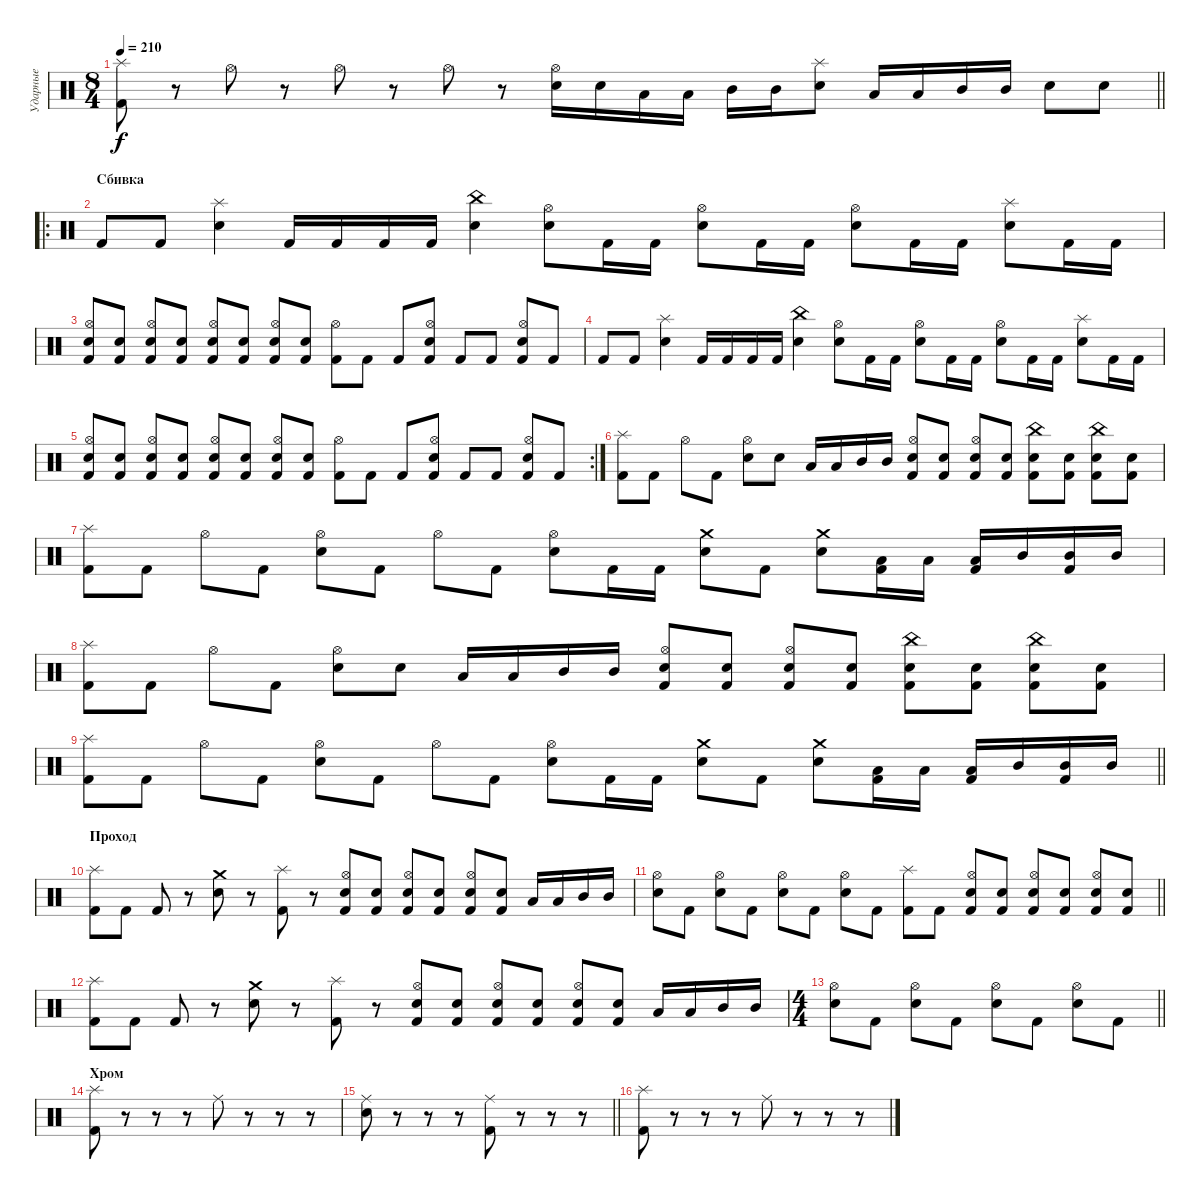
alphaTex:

\track ("Ударные" "Ударные") {mute instrument percussion}
\staff {score}
\articulation defaults
\ts (8 4)
\tempo 210
\clef neutral
\barLineRight lightlight
\ks c
("Kick (hit) 2" "Splash (hit)").8{dy f} r.8 "Hi-Hat (open)".8 r.8 "Hi-Hat (open)".8 r.8 "Hi-Hat (open)".8 r.8 ("Electric Snare (hit)" "Hi-Hat (open)").16 "Electric Snare (hit)".16 "Low Tom (hit)".16 "Low Tom (hit)".16 "Mid Tom (hit)".16 "Mid Tom (hit)".16 ("Electric Snare (hit)" "Splash (hit)").8 "Low Tom (hit)".16 "Low Tom (hit)".16 "Mid Tom (hit)".16 "Mid Tom (hit)".16 "Electric Snare (hit)".8 "Electric Snare (hit)".8 |
\ro
\section ("" "Сбивка")
"Kick (hit) 2".8 "Kick (hit) 2".8 ("Electric Snare (hit)" "Splash (hit)").4 "Kick (hit) 2".16 "Kick (hit) 2".16 "Kick (hit) 2".16 "Kick (hit) 2".16 ("Electric Snare (hit)" "China (hit)").4 ("Electric Snare (hit)" "Hi-Hat (open)").8 "Kick (hit) 2".16 "Kick (hit) 2".16 ("Electric Snare (hit)" "Hi-Hat (open)").8 "Kick (hit) 2".16 "Kick (hit) 2".16 ("Electric Snare (hit)" "Hi-Hat (open)").8 "Kick (hit) 2".16 "Kick (hit) 2".16 ("Electric Snare (hit)" "Splash (hit)").8 "Kick (hit) 2".16 "Kick (hit) 2".16 |
("Kick (hit) 2" "Electric Snare (hit)" "Hi-Hat (open)").8 ("Kick (hit) 2" "Electric Snare (hit)").8 ("Kick (hit) 2" "Electric Snare (hit)" "Hi-Hat (open)").8 ("Kick (hit) 2" "Electric Snare (hit)").8 ("Kick (hit) 2" "Electric Snare (hit)" "Hi-Hat (open)").8 ("Kick (hit) 2" "Electric Snare (hit)").8 ("Kick (hit) 2" "Electric Snare (hit)" "Hi-Hat (open)").8 ("Kick (hit) 2" "Electric Snare (hit)").8 ("Kick (hit) 2" "Hi-Hat (open)").8 "Kick (hit) 2".8 "Kick (hit) 2".8 ("Kick (hit) 2" "Electric Snare (hit)" "Hi-Hat (open)").8 "Kick (hit) 2".8 "Kick (hit) 2".8 ("Kick (hit) 2" "Electric Snare (hit)" "Hi-Hat (open)").8 "Kick (hit) 2".8 |
"Kick (hit) 2".8 "Kick (hit) 2".8 ("Electric Snare (hit)" "Splash (hit)").4 "Kick (hit) 2".16 "Kick (hit) 2".16 "Kick (hit) 2".16 "Kick (hit) 2".16 ("Electric Snare (hit)" "China (hit)").4 ("Electric Snare (hit)" "Hi-Hat (open)").8 "Kick (hit) 2".16 "Kick (hit) 2".16 ("Electric Snare (hit)" "Hi-Hat (open)").8 "Kick (hit) 2".16 "Kick (hit) 2".16 ("Electric Snare (hit)" "Hi-Hat (open)").8 "Kick (hit) 2".16 "Kick (hit) 2".16 ("Electric Snare (hit)" "Splash (hit)").8 "Kick (hit) 2".16 "Kick (hit) 2".16 |
\rc 2
("Kick (hit) 2" "Electric Snare (hit)" "Hi-Hat (open)").8 ("Kick (hit) 2" "Electric Snare (hit)").8 ("Kick (hit) 2" "Electric Snare (hit)" "Hi-Hat (open)").8 ("Kick (hit) 2" "Electric Snare (hit)").8 ("Kick (hit) 2" "Electric Snare (hit)" "Hi-Hat (open)").8 ("Kick (hit) 2" "Electric Snare (hit)").8 ("Kick (hit) 2" "Electric Snare (hit)" "Hi-Hat (open)").8 ("Kick (hit) 2" "Electric Snare (hit)").8 ("Kick (hit) 2" "Hi-Hat (open)").8 "Kick (hit) 2".8 "Kick (hit) 2".8 ("Kick (hit) 2" "Electric Snare (hit)" "Hi-Hat (open)").8 "Kick (hit) 2".8 "Kick (hit) 2".8 ("Kick (hit) 2" "Electric Snare (hit)" "Hi-Hat (open)").8 "Kick (hit) 2".8 |
("Kick (hit) 2" "Splash (hit)").8 "Kick (hit) 2".8 "Hi-Hat (open)".8 "Kick (hit) 2".8 ("Electric Snare (hit)" "Hi-Hat (open)").8 "Electric Snare (hit)".8 "Low Tom (hit)".16 "Low Tom (hit)".16 "Mid Tom (hit)".16 "Mid Tom (hit)".16 ("Kick (hit) 2" "Electric Snare (hit)" "Hi-Hat (open)").8 ("Kick (hit) 2" "Electric Snare (hit)").8 ("Kick (hit) 2" "Electric Snare (hit)" "Hi-Hat (open)").8 ("Kick (hit) 2" "Electric Snare (hit)").8 ("Kick (hit) 2" "Electric Snare (hit)" "China (hit)").8 ("Kick (hit) 2" "Electric Snare (hit)").8 ("Kick (hit) 2" "Electric Snare (hit)" "China (hit)").8 ("Kick (hit) 2" "Electric Snare (hit)").8 |
("Kick (hit) 2" "Splash (hit)").8 "Kick (hit) 2".8 "Hi-Hat (open)".8 "Kick (hit) 2".8 ("Electric Snare (hit)" "Hi-Hat (open)").8 "Kick (hit) 2".8 "Hi-Hat (open)".8 "Kick (hit) 2".8 ("Electric Snare (hit)" "Hi-Hat (open)").8 "Kick (hit) 2".16 "Kick (hit) 2".16 ("Electric Snare (hit)" "Crash medium (hit)").8 "Kick (hit) 2".8 ("Electric Snare (hit)" "Crash medium (hit)").8 ("Low Tom (hit)" "Kick (hit) 2").16 "Low Tom (hit)".16 ("Low Tom (hit)" "Kick (hit) 2").16 "Mid Tom (hit)".16 ("Mid Tom (hit)" "Kick (hit) 2").16 "Mid Tom (hit)".16 |
("Kick (hit) 2" "Splash (hit)").8 "Kick (hit) 2".8 "Hi-Hat (open)".8 "Kick (hit) 2".8 ("Electric Snare (hit)" "Hi-Hat (open)").8 "Electric Snare (hit)".8 "Low Tom (hit)".16 "Low Tom (hit)".16 "Mid Tom (hit)".16 "Mid Tom (hit)".16 ("Kick (hit) 2" "Electric Snare (hit)" "Hi-Hat (open)").8 ("Kick (hit) 2" "Electric Snare (hit)").8 ("Kick (hit) 2" "Electric Snare (hit)" "Hi-Hat (open)").8 ("Kick (hit) 2" "Electric Snare (hit)").8 ("Kick (hit) 2" "Electric Snare (hit)" "China (hit)").8 ("Kick (hit) 2" "Electric Snare (hit)").8 ("Kick (hit) 2" "Electric Snare (hit)" "China (hit)").8 ("Kick (hit) 2" "Electric Snare (hit)").8 |
\barLineRight lightlight
("Kick (hit) 2" "Splash (hit)").8 "Kick (hit) 2".8 "Hi-Hat (open)".8 "Kick (hit) 2".8 ("Electric Snare (hit)" "Hi-Hat (open)").8 "Kick (hit) 2".8 "Hi-Hat (open)".8 "Kick (hit) 2".8 ("Electric Snare (hit)" "Hi-Hat (open)").8 "Kick (hit) 2".16 "Kick (hit) 2".16 ("Electric Snare (hit)" "Crash medium (hit)").8 "Kick (hit) 2".8 ("Electric Snare (hit)" "Crash medium (hit)").8 ("Low Tom (hit)" "Kick (hit) 2").16 "Low Tom (hit)".16 ("Low Tom (hit)" "Kick (hit) 2").16 "Mid Tom (hit)".16 ("Mid Tom (hit)" "Kick (hit) 2").16 "Mid Tom (hit)".16 |
\section ("" "Проход")
("Kick (hit) 2" "Splash (hit)").8 "Kick (hit) 2".8 "Kick (hit) 2".8 r.8 ("Crash medium (hit)" "Electric Snare (hit)").8 r.8 ("Kick (hit) 2" "Splash (hit)").8 r.8 ("Kick (hit) 2" "Electric Snare (hit)" "Hi-Hat (open)").8 ("Kick (hit) 2" "Electric Snare (hit)").8 ("Kick (hit) 2" "Electric Snare (hit)" "Hi-Hat (open)").8 ("Kick (hit) 2" "Electric Snare (hit)").8 ("Kick (hit) 2" "Electric Snare (hit)" "Hi-Hat (open)").8 ("Kick (hit) 2" "Electric Snare (hit)").8 "Low Tom (hit)".16 "Low Tom (hit)".16 "Mid Tom (hit)".16 "Mid Tom (hit)".16 |
\barLineRight lightlight
("Electric Snare (hit)" "Hi-Hat (open)").8 "Kick (hit) 2".8 ("Electric Snare (hit)" "Hi-Hat (open)").8 "Kick (hit) 2".8 ("Electric Snare (hit)" "Hi-Hat (open)").8 "Kick (hit) 2".8 ("Electric Snare (hit)" "Hi-Hat (open)").8 "Kick (hit) 2".8 ("Kick (hit) 2" "Splash (hit)").8 "Kick (hit) 2".8 ("Kick (hit) 2" "Electric Snare (hit)" "Hi-Hat (open)").8 ("Kick (hit) 2" "Electric Snare (hit)").8 ("Kick (hit) 2" "Electric Snare (hit)" "Hi-Hat (open)").8 ("Kick (hit) 2" "Electric Snare (hit)").8 ("Kick (hit) 2" "Electric Snare (hit)" "Hi-Hat (open)").8 ("Kick (hit) 2" "Electric Snare (hit)").8 |
("Kick (hit) 2" "Splash (hit)").8 "Kick (hit) 2".8 "Kick (hit) 2".8 r.8 ("Crash medium (hit)" "Electric Snare (hit)").8 r.8 ("Kick (hit) 2" "Splash (hit)").8 r.8 ("Kick (hit) 2" "Electric Snare (hit)" "Hi-Hat (open)").8 ("Kick (hit) 2" "Electric Snare (hit)").8 ("Kick (hit) 2" "Electric Snare (hit)" "Hi-Hat (open)").8 ("Kick (hit) 2" "Electric Snare (hit)").8 ("Kick (hit) 2" "Electric Snare (hit)" "Hi-Hat (open)").8 ("Kick (hit) 2" "Electric Snare (hit)").8 "Low Tom (hit)".16 "Low Tom (hit)".16 "Mid Tom (hit)".16 "Mid Tom (hit)".16 |
\ts (4 4)
\barLineRight lightlight
("Electric Snare (hit)" "Hi-Hat (open)").8 "Kick (hit) 2".8 ("Electric Snare (hit)" "Hi-Hat (open)").8 "Kick (hit) 2".8 ("Electric Snare (hit)" "Hi-Hat (open)").8 "Kick (hit) 2".8 ("Electric Snare (hit)" "Hi-Hat (open)").8 "Kick (hit) 2".8 |
\section ("" "Хром")
("Kick (hit) 2" "Splash (hit)").8 r.8 r.8 r.8 "Ride (middle)".8 r.8 r.8 r.8 |
\barLineRight lightlight
("Electric Snare (hit)" "Ride (middle)").8 r.8 r.8 r.8 ("Kick (hit) 2" "Ride (middle)").8 r.8 r.8 r.8 |
("Kick (hit) 2" "Splash (hit)").8 r.8 r.8 r.8 "Ride (middle)".8 r.8 r.8 r.8
